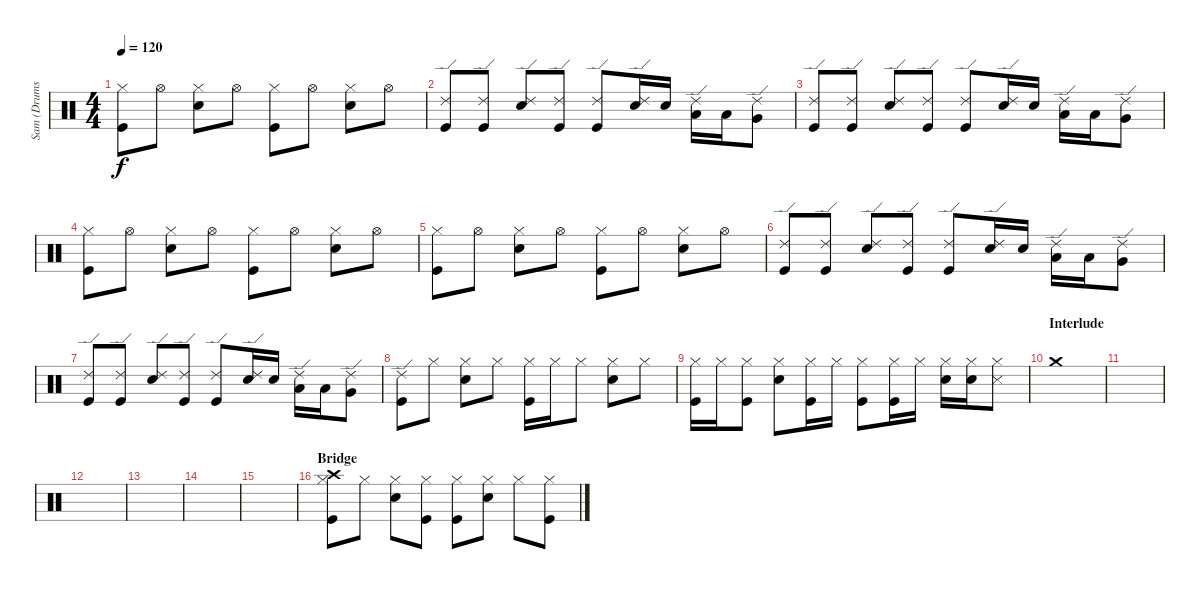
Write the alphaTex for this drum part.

\track ("Sam (Drums)" "Sam (Drums") {instrument percussion}
\staff {score}
\articulation defaults
\ts (4 4)
\tempo 120
\clef neutral
\ks c
("Hi-Hat (closed)" "Kick (hit)").8{dy f} "Hi-Hat (open)".8 ("Hi-Hat (closed)" "Snare (hit) 2").8 "Hi-Hat (open)".8 ("Hi-Hat (closed)" "Kick (hit)").8 "Hi-Hat (open)".8 ("Hi-Hat (closed)" "Snare (hit) 2").8 "Hi-Hat (open)".8 |
("Ride (edge) 2" "Kick (hit)").8 ("Ride (edge) 2" "Kick (hit)").8 ("Ride (edge) 2" "Snare (hit) 2").8 ("Ride (edge) 2" "Kick (hit)").8 ("Ride (edge) 2" "Kick (hit)").8 ("Ride (edge) 2" "Snare (hit) 2").16 "Snare (hit) 2".16 ("Ride (edge) 2" "Low Tom (hit)").16 "Low Tom (hit)".16 ("Ride (edge) 2" "Very Low Tom (hit)").8 |
("Ride (edge) 2" "Kick (hit)").8 ("Ride (edge) 2" "Kick (hit)").8 ("Ride (edge) 2" "Snare (hit) 2").8 ("Ride (edge) 2" "Kick (hit)").8 ("Ride (edge) 2" "Kick (hit)").8 ("Ride (edge) 2" "Snare (hit) 2").16 "Snare (hit) 2".16 ("Ride (edge) 2" "Low Tom (hit)").16 "Low Tom (hit)".16 ("Ride (edge) 2" "Very Low Tom (hit)").8 |
("Hi-Hat (closed)" "Kick (hit)").8 "Hi-Hat (open)".8 ("Hi-Hat (closed)" "Snare (hit) 2").8 "Hi-Hat (open)".8 ("Hi-Hat (closed)" "Kick (hit)").8 "Hi-Hat (open)".8 ("Hi-Hat (closed)" "Snare (hit) 2").8 "Hi-Hat (open)".8 |
("Hi-Hat (closed)" "Kick (hit)").8 "Hi-Hat (open)".8 ("Hi-Hat (closed)" "Snare (hit) 2").8 "Hi-Hat (open)".8 ("Hi-Hat (closed)" "Kick (hit)").8 "Hi-Hat (open)".8 ("Hi-Hat (closed)" "Snare (hit) 2").8 "Hi-Hat (open)".8 |
("Ride (edge) 2" "Kick (hit)").8 ("Ride (edge) 2" "Kick (hit)").8 ("Ride (edge) 2" "Snare (hit) 2").8 ("Ride (edge) 2" "Kick (hit)").8 ("Ride (edge) 2" "Kick (hit)").8 ("Ride (edge) 2" "Snare (hit) 2").16 "Snare (hit) 2".16 ("Ride (edge) 2" "Low Tom (hit)").16 "Low Tom (hit)".16 ("Ride (edge) 2" "Very Low Tom (hit)").8 |
("Ride (edge) 2" "Kick (hit)").8 ("Ride (edge) 2" "Kick (hit)").8 ("Ride (edge) 2" "Snare (hit) 2").8 ("Ride (edge) 2" "Kick (hit)").8 ("Ride (edge) 2" "Kick (hit)").8 ("Ride (edge) 2" "Snare (hit) 2").16 "Snare (hit) 2".16 ("Ride (edge) 2" "Low Tom (hit)").16 "Low Tom (hit)".16 ("Ride (edge) 2" "Very Low Tom (hit)").8 |
("Ride (edge) 2" "Kick (hit)").8 "Hi-Hat (closed)".8 ("Hi-Hat (closed)" "Snare (hit) 2").8 "Hi-Hat (closed)".8 ("Hi-Hat (closed)" "Kick (hit)").16 "Hi-Hat (closed)".16 "Hi-Hat (closed)".8 ("Hi-Hat (closed)" "Snare (hit) 2").8 "Hi-Hat (closed)".8 |
("Hi-Hat (closed)" "Kick (hit)").16 "Hi-Hat (closed)".16 ("Hi-Hat (closed)" "Kick (hit)").8 ("Hi-Hat (closed)" "Snare (hit) 2").8 ("Hi-Hat (closed)" "Kick (hit)").16 "Hi-Hat (closed)".16 ("Hi-Hat (closed)" "Kick (hit)").8 ("Hi-Hat (closed)" "Kick (hit)").16 "Hi-Hat (closed)".16 ("Hi-Hat (closed)" "Snare (hit) 2").16 ("Hi-Hat (closed)" "Snare (hit) 2").16 ("Hi-Hat (closed)" "Snare (side stick) 3").8 |
\section ("" "Interlude")
"Crash medium (hit)".1 |
|
|
|
|
|
\section ("" "Bridge")
("Crash high (hit)" "Hi-Hat (closed)" "Kick (hit)").8 "Hi-Hat (closed)".8 ("Hi-Hat (closed)" "Snare (hit) 2").8 ("Hi-Hat (closed)" "Kick (hit)").8 ("Hi-Hat (closed)" "Kick (hit)").8 ("Hi-Hat (closed)" "Snare (hit) 2").8 "Hi-Hat (closed)".8 ("Hi-Hat (closed)" "Kick (hit)").8
